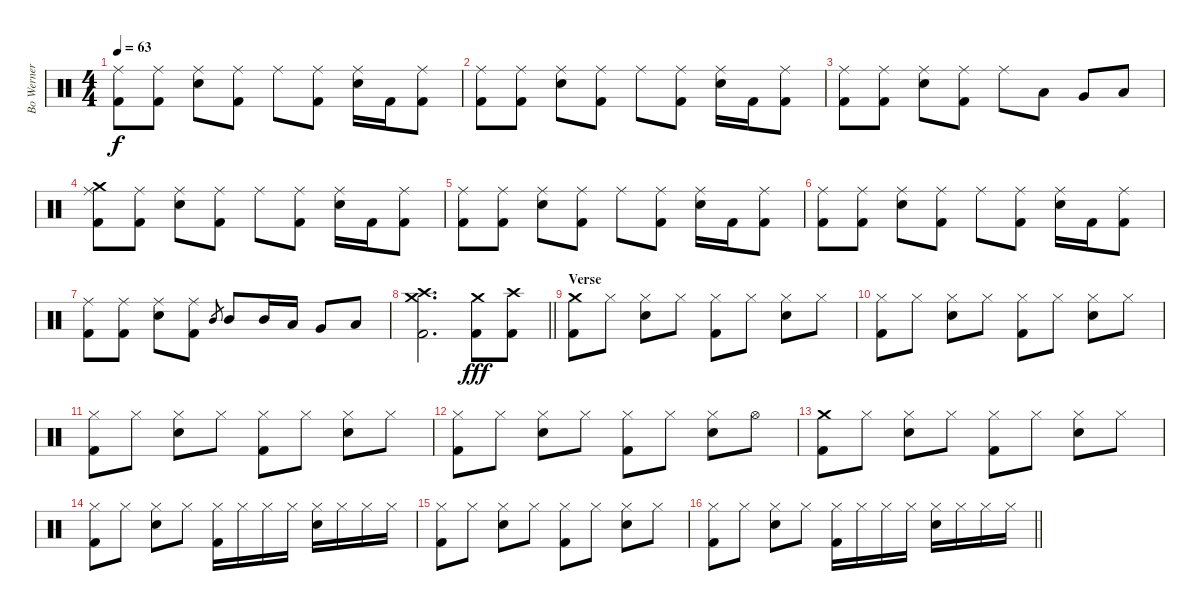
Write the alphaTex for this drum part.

\track ("Bo Werner " "Bo Werner ") {instrument percussion}
\staff {score}
\articulation defaults
\ts (4 4)
\tempo 63
\clef neutral
\ks c
("Ride (middle)" "Kick (hit) 2").8{dy f} ("Ride (middle)" "Kick (hit) 2").8 ("Ride (middle)" "Snare (hit) 2").8 ("Ride (middle)" "Kick (hit) 2").8 "Ride (middle)".8 ("Ride (middle)" "Kick (hit) 2").8 ("Ride (middle)" "Snare (hit) 2").16 "Kick (hit) 2".16 ("Ride (middle)" "Kick (hit) 2").8 |
("Ride (middle)" "Kick (hit) 2").8 ("Ride (middle)" "Kick (hit) 2").8 ("Ride (middle)" "Snare (hit) 2").8 ("Ride (middle)" "Kick (hit) 2").8 "Ride (middle)".8 ("Ride (middle)" "Kick (hit) 2").8 ("Ride (middle)" "Snare (hit) 2").16 "Kick (hit) 2".16 ("Ride (middle)" "Kick (hit) 2").8 |
("Ride (middle)" "Kick (hit) 2").8 ("Ride (middle)" "Kick (hit) 2").8 ("Ride (middle)" "Snare (hit) 2").8 ("Ride (middle)" "Kick (hit) 2").8 "Ride (middle)".8 "Low Tom (hit)".8 "Very Low Tom (hit)".8 "Low Floor Tom (hit)".8 |
("Crash medium (hit)" "Ride (middle)" "Kick (hit) 2").8 ("Ride (middle)" "Kick (hit) 2").8 ("Ride (middle)" "Snare (hit) 2").8 ("Ride (middle)" "Kick (hit) 2").8 "Ride (middle)".8 ("Ride (middle)" "Kick (hit) 2").8 ("Ride (middle)" "Snare (hit) 2").16 "Kick (hit) 2".16 ("Ride (middle)" "Kick (hit) 2").8 |
("Ride (middle)" "Kick (hit) 2").8 ("Ride (middle)" "Kick (hit) 2").8 ("Ride (middle)" "Snare (hit) 2").8 ("Ride (middle)" "Kick (hit) 2").8 "Ride (middle)".8 ("Ride (middle)" "Kick (hit) 2").8 ("Ride (middle)" "Snare (hit) 2").16 "Kick (hit) 2".16 ("Ride (middle)" "Kick (hit) 2").8 |
("Ride (middle)" "Kick (hit) 2").8 ("Ride (middle)" "Kick (hit) 2").8 ("Ride (middle)" "Snare (hit) 2").8 ("Ride (middle)" "Kick (hit) 2").8 "Ride (middle)".8 ("Ride (middle)" "Kick (hit) 2").8 ("Ride (middle)" "Snare (hit) 2").16 "Kick (hit) 2".16 ("Ride (middle)" "Kick (hit) 2").8 |
("Ride (middle)" "Kick (hit) 2").8 ("Ride (middle)" "Kick (hit) 2").8 ("Ride (middle)" "Snare (hit) 2").8 ("Ride (middle)" "Kick (hit) 2").8 "Mid Tom (hit)".8{gr} "Mid Tom (hit)".8 "Mid Tom (hit)".16 "Low Tom (hit)".16 "Very Low Tom (hit)".8 "Low Floor Tom (hit)".8 |
\barLineRight lightlight
("Crash medium (hit)" "Crash high (hit)" "Kick (hit) 2").2{d} ("Crash medium (hit)" "Kick (hit) 2").8{dy fff} ("Crash high (hit)" "Kick (hit) 2").8 |
\section ("" "Verse")
("Crash medium (hit)" "Kick (hit) 2").8 "Hi-Hat (closed)".8 ("Hi-Hat (closed)" "Snare (hit) 2").8 "Hi-Hat (closed)".8 ("Hi-Hat (closed)" "Kick (hit) 2").8 "Hi-Hat (closed)".8 ("Hi-Hat (closed)" "Snare (hit) 2").8 "Hi-Hat (closed)".8 |
("Hi-Hat (closed)" "Kick (hit) 2").8 "Hi-Hat (closed)".8 ("Hi-Hat (closed)" "Snare (hit) 2").8 "Hi-Hat (closed)".8 ("Hi-Hat (closed)" "Kick (hit) 2").8 "Hi-Hat (closed)".8 ("Hi-Hat (closed)" "Snare (hit) 2").8 "Hi-Hat (closed)".8 |
("Hi-Hat (closed)" "Kick (hit) 2").8 "Hi-Hat (closed)".8 ("Hi-Hat (closed)" "Snare (hit) 2").8 "Hi-Hat (closed)".8 ("Hi-Hat (closed)" "Kick (hit) 2").8 "Hi-Hat (closed)".8 ("Hi-Hat (closed)" "Snare (hit) 2").8 "Hi-Hat (closed)".8 |
("Hi-Hat (closed)" "Kick (hit) 2").8 "Hi-Hat (closed)".8 ("Hi-Hat (closed)" "Snare (hit) 2").8 "Hi-Hat (closed)".8 ("Hi-Hat (closed)" "Kick (hit) 2").8 "Hi-Hat (closed)".8 ("Hi-Hat (closed)" "Snare (hit) 2").8 "Hi-Hat (open)".8 |
("Crash medium (hit)" "Kick (hit) 2").8 "Hi-Hat (closed)".8 ("Hi-Hat (closed)" "Snare (hit) 2").8 "Hi-Hat (closed)".8 ("Hi-Hat (closed)" "Kick (hit) 2").8 "Hi-Hat (closed)".8 ("Hi-Hat (closed)" "Snare (hit) 2").8 "Hi-Hat (closed)".8 |
("Hi-Hat (closed)" "Kick (hit) 2").8 "Hi-Hat (closed)".8 ("Hi-Hat (closed)" "Snare (hit) 2").8 "Hi-Hat (closed)".8 ("Hi-Hat (closed)" "Kick (hit) 2").16 "Hi-Hat (closed)".16 "Hi-Hat (closed)".16 "Hi-Hat (closed)".16 ("Hi-Hat (closed)" "Snare (hit) 2").16 "Hi-Hat (closed)".16 "Hi-Hat (closed)".16 "Hi-Hat (closed)".16 |
("Hi-Hat (closed)" "Kick (hit) 2").8 "Hi-Hat (closed)".8 ("Hi-Hat (closed)" "Snare (hit) 2").8 "Hi-Hat (closed)".8 ("Hi-Hat (closed)" "Kick (hit) 2").8 "Hi-Hat (closed)".8 ("Hi-Hat (closed)" "Snare (hit) 2").8 "Hi-Hat (closed)".8 |
\barLineRight lightlight
("Hi-Hat (closed)" "Kick (hit) 2").8 "Hi-Hat (closed)".8 ("Hi-Hat (closed)" "Snare (hit) 2").8 "Hi-Hat (closed)".8 ("Hi-Hat (closed)" "Kick (hit) 2").16 "Hi-Hat (closed)".16 "Hi-Hat (closed)".16 "Hi-Hat (closed)".16 ("Hi-Hat (closed)" "Snare (hit) 2").16 "Hi-Hat (closed)".16 "Hi-Hat (closed)".16 "Hi-Hat (closed)".16
